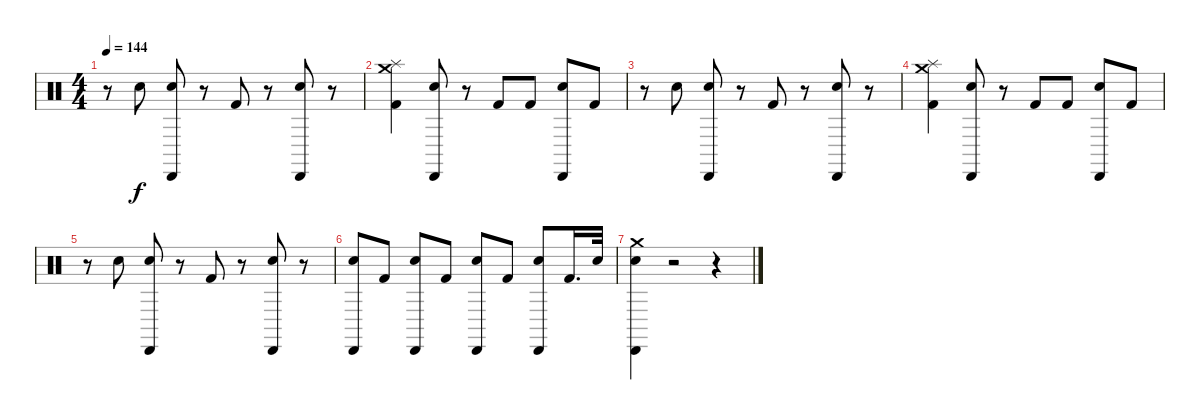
\track "" {instrument percussion}
\staff {score}
\articulation defaults
\ts (4 4)
\tempo 144
\clef neutral
\ks c
r.8{dy f} "Snare (hit) 2".8 ("Cabasa (hit)" "Snare (hit) 2").8 r.8 "Kick (hit) 2".8 r.8 ("Cabasa (hit)" "Snare (hit) 2").8 r.8 |
("Crash medium (hit)" "Splash (hit)" "Kick (hit) 2").4 ("Cabasa (hit)" "Snare (hit) 2").8 r.8 "Kick (hit) 2".8 "Kick (hit) 2".8 ("Cabasa (hit)" "Snare (hit) 2").8 "Kick (hit) 2".8 |
r.8 "Snare (hit) 2".8 ("Cabasa (hit)" "Snare (hit) 2").8 r.8 "Kick (hit) 2".8 r.8 ("Cabasa (hit)" "Snare (hit) 2").8 r.8 |
("Crash medium (hit)" "Splash (hit)" "Kick (hit) 2").4 ("Cabasa (hit)" "Snare (hit) 2").8 r.8 "Kick (hit) 2".8 "Kick (hit) 2".8 ("Cabasa (hit)" "Snare (hit) 2").8 "Kick (hit) 2".8 |
r.8 "Snare (hit) 2".8 ("Cabasa (hit)" "Snare (hit) 2").8 r.8 "Kick (hit) 2".8 r.8 ("Cabasa (hit)" "Snare (hit) 2").8 r.8 |
("Cabasa (hit)" "Snare (hit) 2").8 "Kick (hit) 2".8 ("Cabasa (hit)" "Snare (hit) 2").8 "Kick (hit) 2".8 ("Cabasa (hit)" "Snare (hit) 2").8 "Kick (hit) 2".8 ("Cabasa (hit)" "Snare (hit) 2").8 "Kick (hit) 2".16{d} "Snare (hit) 2".32 |
("Cabasa (hit)" "Crash medium (hit)" "Snare (hit) 2").4 r.2 r.4
